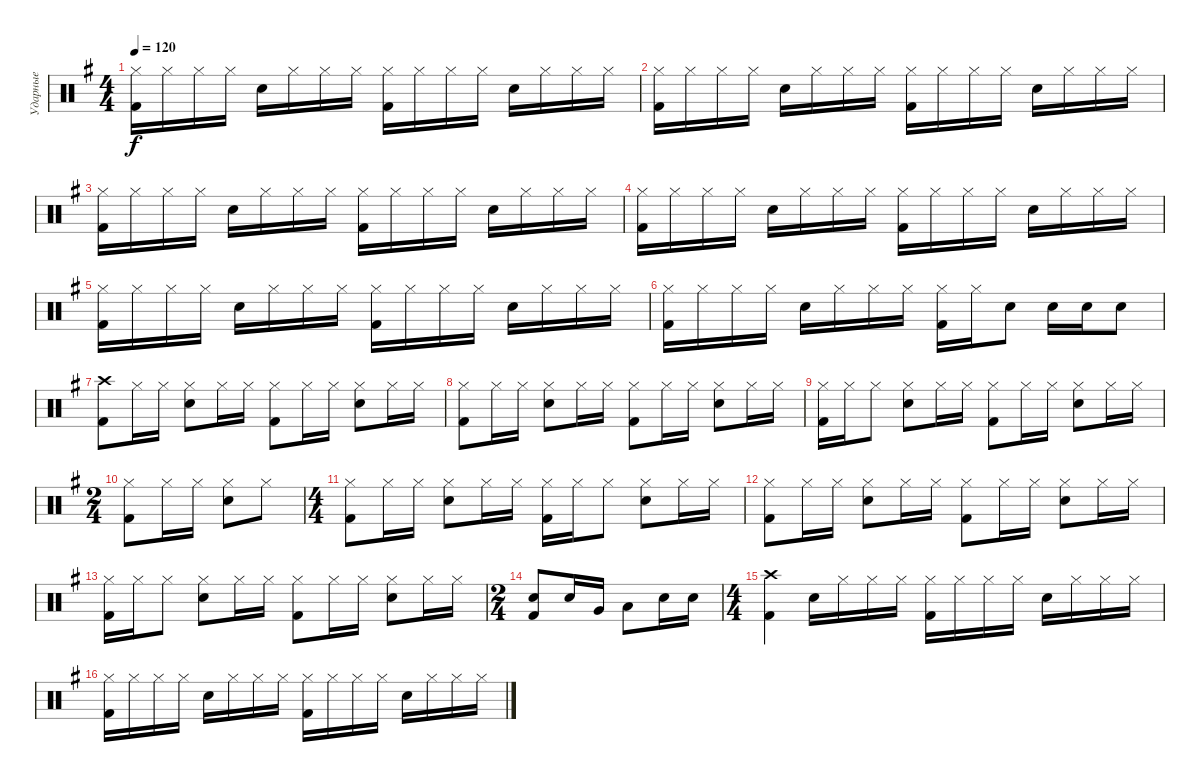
\track ("Ударные" "Ударные") {instrument percussion}
\staff {score}
\articulation defaults
\ts (4 4)
\tempo 120
\clef neutral
\ks g
("Hi-Hat (closed)" "Kick (hit) 2").16{dy f} "Hi-Hat (closed)".16 "Hi-Hat (closed)".16 "Hi-Hat (closed)".16 "Snare (hit) 2".16 "Hi-Hat (closed)".16 "Hi-Hat (closed)".16 "Hi-Hat (closed)".16 ("Hi-Hat (closed)" "Kick (hit) 2").16 "Hi-Hat (closed)".16 "Hi-Hat (closed)".16 "Hi-Hat (closed)".16 "Snare (hit) 2".16 "Hi-Hat (closed)".16 "Hi-Hat (closed)".16 "Hi-Hat (closed)".16 |
("Hi-Hat (closed)" "Kick (hit) 2").16 "Hi-Hat (closed)".16 "Hi-Hat (closed)".16 "Hi-Hat (closed)".16 "Snare (hit) 2".16 "Hi-Hat (closed)".16 "Hi-Hat (closed)".16 "Hi-Hat (closed)".16 ("Hi-Hat (closed)" "Kick (hit) 2").16 "Hi-Hat (closed)".16 "Hi-Hat (closed)".16 "Hi-Hat (closed)".16 "Snare (hit) 2".16 "Hi-Hat (closed)".16 "Hi-Hat (closed)".16 "Hi-Hat (closed)".16 |
("Hi-Hat (closed)" "Kick (hit) 2").16 "Hi-Hat (closed)".16 "Hi-Hat (closed)".16 "Hi-Hat (closed)".16 "Snare (hit) 2".16 "Hi-Hat (closed)".16 "Hi-Hat (closed)".16 "Hi-Hat (closed)".16 ("Hi-Hat (closed)" "Kick (hit) 2").16 "Hi-Hat (closed)".16 "Hi-Hat (closed)".16 "Hi-Hat (closed)".16 "Snare (hit) 2".16 "Hi-Hat (closed)".16 "Hi-Hat (closed)".16 "Hi-Hat (closed)".16 |
("Hi-Hat (closed)" "Kick (hit) 2").16 "Hi-Hat (closed)".16 "Hi-Hat (closed)".16 "Hi-Hat (closed)".16 "Snare (hit) 2".16 "Hi-Hat (closed)".16 "Hi-Hat (closed)".16 "Hi-Hat (closed)".16 ("Hi-Hat (closed)" "Kick (hit) 2").16 "Hi-Hat (closed)".16 "Hi-Hat (closed)".16 "Hi-Hat (closed)".16 "Snare (hit) 2".16 "Hi-Hat (closed)".16 "Hi-Hat (closed)".16 "Hi-Hat (closed)".16 |
("Hi-Hat (closed)" "Kick (hit) 2").16 "Hi-Hat (closed)".16 "Hi-Hat (closed)".16 "Hi-Hat (closed)".16 "Snare (hit) 2".16 "Hi-Hat (closed)".16 "Hi-Hat (closed)".16 "Hi-Hat (closed)".16 ("Hi-Hat (closed)" "Kick (hit) 2").16 "Hi-Hat (closed)".16 "Hi-Hat (closed)".16 "Hi-Hat (closed)".16 "Snare (hit) 2".16 "Hi-Hat (closed)".16 "Hi-Hat (closed)".16 "Hi-Hat (closed)".16 |
("Hi-Hat (closed)" "Kick (hit) 2").16 "Hi-Hat (closed)".16 "Hi-Hat (closed)".16 "Hi-Hat (closed)".16 "Snare (hit) 2".16 "Hi-Hat (closed)".16 "Hi-Hat (closed)".16 "Hi-Hat (closed)".16 ("Hi-Hat (closed)" "Kick (hit) 2").16 "Hi-Hat (closed)".16 "Snare (hit) 2".8 "Snare (hit) 2".16 "Snare (hit) 2".16 "Snare (hit) 2".8 |
("Crash high (hit)" "Kick (hit) 2").8 "Hi-Hat (closed)".16 "Hi-Hat (closed)".16 ("Hi-Hat (closed)" "Snare (hit) 2").8 "Hi-Hat (closed)".16 "Hi-Hat (closed)".16 ("Hi-Hat (closed)" "Kick (hit) 2").8 "Hi-Hat (closed)".16 "Hi-Hat (closed)".16 ("Hi-Hat (closed)" "Snare (hit) 2").8 "Hi-Hat (closed)".16 "Hi-Hat (closed)".16 |
("Hi-Hat (closed)" "Kick (hit) 2").8 "Hi-Hat (closed)".16 "Hi-Hat (closed)".16 ("Hi-Hat (closed)" "Snare (hit) 2").8 "Hi-Hat (closed)".16 "Hi-Hat (closed)".16 ("Hi-Hat (closed)" "Kick (hit) 2").8 "Hi-Hat (closed)".16 "Hi-Hat (closed)".16 ("Hi-Hat (closed)" "Snare (hit) 2").8 "Hi-Hat (closed)".16 "Hi-Hat (closed)".16 |
("Hi-Hat (closed)" "Kick (hit) 2").16 "Hi-Hat (closed)".16 "Hi-Hat (closed)".8 ("Hi-Hat (closed)" "Snare (hit) 2").8 "Hi-Hat (closed)".16 "Hi-Hat (closed)".16 ("Hi-Hat (closed)" "Kick (hit) 2").8 "Hi-Hat (closed)".16 "Hi-Hat (closed)".16 ("Hi-Hat (closed)" "Snare (hit) 2").8 "Hi-Hat (closed)".16 "Hi-Hat (closed)".16 |
\ts (2 4)
("Hi-Hat (closed)" "Kick (hit) 2").8 "Hi-Hat (closed)".16 "Hi-Hat (closed)".16 ("Hi-Hat (closed)" "Snare (hit) 2").8 "Hi-Hat (closed)".8 |
\ts (4 4)
("Hi-Hat (closed)" "Kick (hit) 2").8 "Hi-Hat (closed)".16 "Hi-Hat (closed)".16 ("Hi-Hat (closed)" "Snare (hit) 2").8 "Hi-Hat (closed)".16 "Hi-Hat (closed)".16 ("Hi-Hat (closed)" "Kick (hit) 2").16 "Hi-Hat (closed)".16 "Hi-Hat (closed)".8 ("Hi-Hat (closed)" "Snare (hit) 2").8 "Hi-Hat (closed)".16 "Hi-Hat (closed)".16 |
("Hi-Hat (closed)" "Kick (hit) 2").8 "Hi-Hat (closed)".16 "Hi-Hat (closed)".16 ("Hi-Hat (closed)" "Snare (hit) 2").8 "Hi-Hat (closed)".16 "Hi-Hat (closed)".16 ("Hi-Hat (closed)" "Kick (hit) 2").8 "Hi-Hat (closed)".16 "Hi-Hat (closed)".16 ("Hi-Hat (closed)" "Snare (hit) 2").8 "Hi-Hat (closed)".16 "Hi-Hat (closed)".16 |
("Hi-Hat (closed)" "Kick (hit) 2").16 "Hi-Hat (closed)".16 "Hi-Hat (closed)".8 ("Hi-Hat (closed)" "Snare (hit) 2").8 "Hi-Hat (closed)".16 "Hi-Hat (closed)".16 ("Hi-Hat (closed)" "Kick (hit) 2").8 "Hi-Hat (closed)".16 "Hi-Hat (closed)".16 ("Hi-Hat (closed)" "Snare (hit) 2").8 "Hi-Hat (closed)".16 "Hi-Hat (closed)".16 |
\ts (2 4)
("Snare (hit) 2" "Kick (hit) 2").8 "Snare (hit) 2".16 "Very Low Tom (hit)".16 "Low Tom (hit)".8 "Snare (hit) 2".16 "Snare (hit) 2".16 |
\ts (4 4)
("Crash high (hit)" "Kick (hit) 2").4 "Snare (hit) 2".16 "Hi-Hat (closed)".16 "Hi-Hat (closed)".16 "Hi-Hat (closed)".16 ("Hi-Hat (closed)" "Kick (hit) 2").16 "Hi-Hat (closed)".16 "Hi-Hat (closed)".16 "Hi-Hat (closed)".16 "Snare (hit) 2".16 "Hi-Hat (closed)".16 "Hi-Hat (closed)".16 "Hi-Hat (closed)".16 |
("Hi-Hat (closed)" "Kick (hit) 2").16 "Hi-Hat (closed)".16 "Hi-Hat (closed)".16 "Hi-Hat (closed)".16 "Snare (hit) 2".16 "Hi-Hat (closed)".16 "Hi-Hat (closed)".16 "Hi-Hat (closed)".16 ("Hi-Hat (closed)" "Kick (hit) 2").16 "Hi-Hat (closed)".16 "Hi-Hat (closed)".16 "Hi-Hat (closed)".16 "Snare (hit) 2".16 "Hi-Hat (closed)".16 "Hi-Hat (closed)".16 "Hi-Hat (closed)".16
